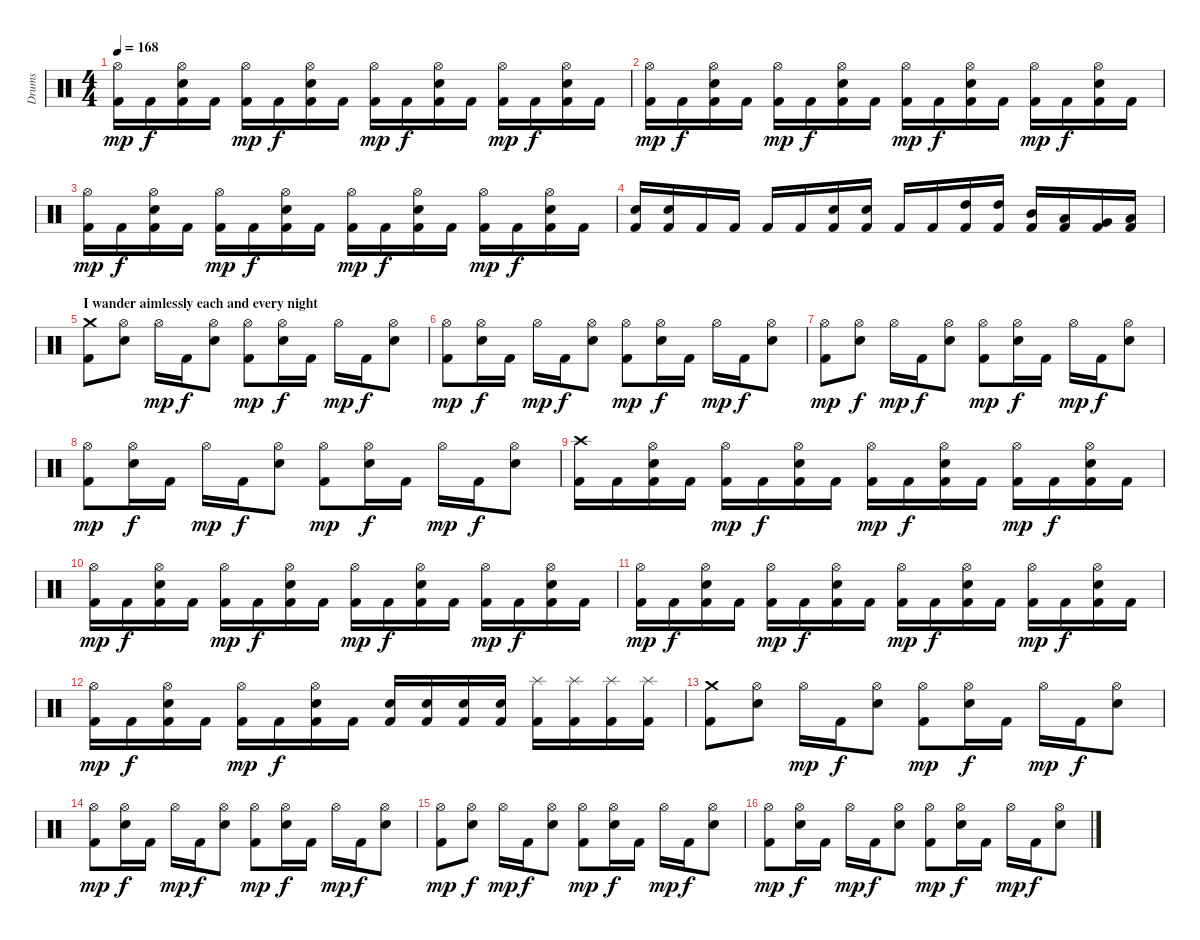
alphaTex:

\track ("Drums" "Drums") {instrument percussion}
\staff {score}
\articulation defaults
\ts (4 4)
\tempo 168
\clef neutral
\ks c
("Kick (hit) 2" "Hi-Hat (open)").16{dy mp} "Kick (hit) 2".16{dy f} ("Kick (hit) 2" "Electric Snare (hit)" "Hi-Hat (open)").16 "Kick (hit) 2".16 ("Kick (hit) 2" "Hi-Hat (open)").16{dy mp} "Kick (hit) 2".16{dy f} ("Kick (hit) 2" "Electric Snare (hit)" "Hi-Hat (open)").16 "Kick (hit) 2".16 ("Kick (hit) 2" "Hi-Hat (open)").16{dy mp} "Kick (hit) 2".16{dy f} ("Kick (hit) 2" "Electric Snare (hit)" "Hi-Hat (open)").16 "Kick (hit) 2".16 ("Kick (hit) 2" "Hi-Hat (open)").16{dy mp} "Kick (hit) 2".16{dy f} ("Kick (hit) 2" "Electric Snare (hit)" "Hi-Hat (open)").16 "Kick (hit) 2".16 |
("Kick (hit) 2" "Hi-Hat (open)").16{dy mp} "Kick (hit) 2".16{dy f} ("Kick (hit) 2" "Electric Snare (hit)" "Hi-Hat (open)").16 "Kick (hit) 2".16 ("Kick (hit) 2" "Hi-Hat (open)").16{dy mp} "Kick (hit) 2".16{dy f} ("Kick (hit) 2" "Electric Snare (hit)" "Hi-Hat (open)").16 "Kick (hit) 2".16 ("Kick (hit) 2" "Hi-Hat (open)").16{dy mp} "Kick (hit) 2".16{dy f} ("Kick (hit) 2" "Electric Snare (hit)" "Hi-Hat (open)").16 "Kick (hit) 2".16 ("Kick (hit) 2" "Hi-Hat (open)").16{dy mp} "Kick (hit) 2".16{dy f} ("Kick (hit) 2" "Electric Snare (hit)" "Hi-Hat (open)").16 "Kick (hit) 2".16 |
("Kick (hit) 2" "Hi-Hat (open)").16{dy mp} "Kick (hit) 2".16{dy f} ("Kick (hit) 2" "Electric Snare (hit)" "Hi-Hat (open)").16 "Kick (hit) 2".16 ("Kick (hit) 2" "Hi-Hat (open)").16{dy mp} "Kick (hit) 2".16{dy f} ("Kick (hit) 2" "Electric Snare (hit)" "Hi-Hat (open)").16 "Kick (hit) 2".16 ("Kick (hit) 2" "Hi-Hat (open)").16{dy mp} "Kick (hit) 2".16{dy f} ("Kick (hit) 2" "Electric Snare (hit)" "Hi-Hat (open)").16 "Kick (hit) 2".16 ("Kick (hit) 2" "Hi-Hat (open)").16{dy mp} "Kick (hit) 2".16{dy f} ("Kick (hit) 2" "Electric Snare (hit)" "Hi-Hat (open)").16 "Kick (hit) 2".16 |
("Kick (hit) 2" "Electric Snare (hit)").16 ("Kick (hit) 2" "Electric Snare (hit)").16 "Kick (hit) 2".16 "Kick (hit) 2".16 "Kick (hit) 2".16 "Kick (hit) 2".16 ("Kick (hit) 2" "Electric Snare (hit)").16 ("Kick (hit) 2" "Electric Snare (hit)").16 "Kick (hit) 2".16 "Kick (hit) 2".16 ("Kick (hit) 2" "High Tom (hit)").16 ("Kick (hit) 2" "High Tom (hit)").16 ("Kick (hit) 2" "Mid Tom (hit)").16 ("Kick (hit) 2" "Low Tom (hit)").16 ("Kick (hit) 2" "Very Low Tom (hit)").16 ("Kick (hit) 2" "Low Floor Tom (hit)").16 |
\section ("" "I wander aimlessly each and every night")
("Kick (hit) 2" "Crash medium (hit)").8 ("Electric Snare (hit)" "Hi-Hat (open)").8 "Hi-Hat (open)".16{dy mp} "Kick (hit) 2".16{dy f} ("Electric Snare (hit)" "Hi-Hat (open)").8 ("Kick (hit) 2" "Hi-Hat (open)").8{dy mp} ("Electric Snare (hit)" "Hi-Hat (open)").16{dy f} "Kick (hit) 2".16 "Hi-Hat (open)".16{dy mp} "Kick (hit) 2".16{dy f} ("Electric Snare (hit)" "Hi-Hat (open)").8 |
("Kick (hit) 2" "Hi-Hat (open)").8{dy mp} ("Electric Snare (hit)" "Hi-Hat (open)").16{dy f} "Kick (hit) 2".16 "Hi-Hat (open)".16{dy mp} "Kick (hit) 2".16{dy f} ("Electric Snare (hit)" "Hi-Hat (open)").8 ("Kick (hit) 2" "Hi-Hat (open)").8{dy mp} ("Electric Snare (hit)" "Hi-Hat (open)").16{dy f} "Kick (hit) 2".16 "Hi-Hat (open)".16{dy mp} "Kick (hit) 2".16{dy f} ("Electric Snare (hit)" "Hi-Hat (open)").8 |
("Kick (hit) 2" "Hi-Hat (open)").8{dy mp} ("Electric Snare (hit)" "Hi-Hat (open)").8{dy f} "Hi-Hat (open)".16{dy mp} "Kick (hit) 2".16{dy f} ("Electric Snare (hit)" "Hi-Hat (open)").8 ("Kick (hit) 2" "Hi-Hat (open)").8{dy mp} ("Electric Snare (hit)" "Hi-Hat (open)").16{dy f} "Kick (hit) 2".16 "Hi-Hat (open)".16{dy mp} "Kick (hit) 2".16{dy f} ("Electric Snare (hit)" "Hi-Hat (open)").8 |
("Kick (hit) 2" "Hi-Hat (open)").8{dy mp} ("Electric Snare (hit)" "Hi-Hat (open)").16{dy f} "Kick (hit) 2".16 "Hi-Hat (open)".16{dy mp} "Kick (hit) 2".16{dy f} ("Electric Snare (hit)" "Hi-Hat (open)").8 ("Kick (hit) 2" "Hi-Hat (open)").8{dy mp} ("Electric Snare (hit)" "Hi-Hat (open)").16{dy f} "Kick (hit) 2".16 "Hi-Hat (open)".16{dy mp} "Kick (hit) 2".16{dy f} ("Electric Snare (hit)" "Hi-Hat (open)").8 |
("Kick (hit) 2" "Crash high (hit)").16 "Kick (hit) 2".16 ("Kick (hit) 2" "Electric Snare (hit)" "Hi-Hat (open)").16 "Kick (hit) 2".16 ("Kick (hit) 2" "Hi-Hat (open)").16{dy mp} "Kick (hit) 2".16{dy f} ("Kick (hit) 2" "Electric Snare (hit)" "Hi-Hat (open)").16 "Kick (hit) 2".16 ("Kick (hit) 2" "Hi-Hat (open)").16{dy mp} "Kick (hit) 2".16{dy f} ("Kick (hit) 2" "Electric Snare (hit)" "Hi-Hat (open)").16 "Kick (hit) 2".16 ("Kick (hit) 2" "Hi-Hat (open)").16{dy mp} "Kick (hit) 2".16{dy f} ("Kick (hit) 2" "Electric Snare (hit)" "Hi-Hat (open)").16 "Kick (hit) 2".16 |
("Kick (hit) 2" "Hi-Hat (open)").16{dy mp} "Kick (hit) 2".16{dy f} ("Kick (hit) 2" "Electric Snare (hit)" "Hi-Hat (open)").16 "Kick (hit) 2".16 ("Kick (hit) 2" "Hi-Hat (open)").16{dy mp} "Kick (hit) 2".16{dy f} ("Kick (hit) 2" "Electric Snare (hit)" "Hi-Hat (open)").16 "Kick (hit) 2".16 ("Kick (hit) 2" "Hi-Hat (open)").16{dy mp} "Kick (hit) 2".16{dy f} ("Kick (hit) 2" "Electric Snare (hit)" "Hi-Hat (open)").16 "Kick (hit) 2".16 ("Kick (hit) 2" "Hi-Hat (open)").16{dy mp} "Kick (hit) 2".16{dy f} ("Kick (hit) 2" "Electric Snare (hit)" "Hi-Hat (open)").16 "Kick (hit) 2".16 |
("Kick (hit) 2" "Hi-Hat (open)").16{dy mp} "Kick (hit) 2".16{dy f} ("Kick (hit) 2" "Electric Snare (hit)" "Hi-Hat (open)").16 "Kick (hit) 2".16 ("Kick (hit) 2" "Hi-Hat (open)").16{dy mp} "Kick (hit) 2".16{dy f} ("Kick (hit) 2" "Electric Snare (hit)" "Hi-Hat (open)").16 "Kick (hit) 2".16 ("Kick (hit) 2" "Hi-Hat (open)").16{dy mp} "Kick (hit) 2".16{dy f} ("Kick (hit) 2" "Electric Snare (hit)" "Hi-Hat (open)").16 "Kick (hit) 2".16 ("Kick (hit) 2" "Hi-Hat (open)").16{dy mp} "Kick (hit) 2".16{dy f} ("Kick (hit) 2" "Electric Snare (hit)" "Hi-Hat (open)").16 "Kick (hit) 2".16 |
("Kick (hit) 2" "Hi-Hat (open)").16{dy mp} "Kick (hit) 2".16{dy f} ("Kick (hit) 2" "Electric Snare (hit)" "Hi-Hat (open)").16 "Kick (hit) 2".16 ("Kick (hit) 2" "Hi-Hat (open)").16{dy mp} "Kick (hit) 2".16{dy f} ("Kick (hit) 2" "Electric Snare (hit)" "Hi-Hat (open)").16 "Kick (hit) 2".16 ("Kick (hit) 2" "Electric Snare (hit)").16 ("Kick (hit) 2" "Electric Snare (hit)").16 ("Kick (hit) 2" "Electric Snare (hit)").16 ("Kick (hit) 2" "Electric Snare (hit)").16 ("Kick (hit) 2" "Splash (hit)").16 ("Kick (hit) 2" "Splash (hit)").16 ("Kick (hit) 2" "Splash (hit)").16 ("Kick (hit) 2" "Splash (hit)").16 |
("Kick (hit) 2" "Crash medium (hit)").8 ("Electric Snare (hit)" "Hi-Hat (open)").8 "Hi-Hat (open)".16{dy mp} "Kick (hit) 2".16{dy f} ("Electric Snare (hit)" "Hi-Hat (open)").8 ("Kick (hit) 2" "Hi-Hat (open)").8{dy mp} ("Electric Snare (hit)" "Hi-Hat (open)").16{dy f} "Kick (hit) 2".16 "Hi-Hat (open)".16{dy mp} "Kick (hit) 2".16{dy f} ("Electric Snare (hit)" "Hi-Hat (open)").8 |
("Kick (hit) 2" "Hi-Hat (open)").8{dy mp} ("Electric Snare (hit)" "Hi-Hat (open)").16{dy f} "Kick (hit) 2".16 "Hi-Hat (open)".16{dy mp} "Kick (hit) 2".16{dy f} ("Electric Snare (hit)" "Hi-Hat (open)").8 ("Kick (hit) 2" "Hi-Hat (open)").8{dy mp} ("Electric Snare (hit)" "Hi-Hat (open)").16{dy f} "Kick (hit) 2".16 "Hi-Hat (open)".16{dy mp} "Kick (hit) 2".16{dy f} ("Electric Snare (hit)" "Hi-Hat (open)").8 |
("Kick (hit) 2" "Hi-Hat (open)").8{dy mp} ("Electric Snare (hit)" "Hi-Hat (open)").8{dy f} "Hi-Hat (open)".16{dy mp} "Kick (hit) 2".16{dy f} ("Electric Snare (hit)" "Hi-Hat (open)").8 ("Kick (hit) 2" "Hi-Hat (open)").8{dy mp} ("Electric Snare (hit)" "Hi-Hat (open)").16{dy f} "Kick (hit) 2".16 "Hi-Hat (open)".16{dy mp} "Kick (hit) 2".16{dy f} ("Electric Snare (hit)" "Hi-Hat (open)").8 |
("Kick (hit) 2" "Hi-Hat (open)").8{dy mp} ("Electric Snare (hit)" "Hi-Hat (open)").16{dy f} "Kick (hit) 2".16 "Hi-Hat (open)".16{dy mp} "Kick (hit) 2".16{dy f} ("Electric Snare (hit)" "Hi-Hat (open)").8 ("Kick (hit) 2" "Hi-Hat (open)").8{dy mp} ("Electric Snare (hit)" "Hi-Hat (open)").16{dy f} "Kick (hit) 2".16 "Hi-Hat (open)".16{dy mp} "Kick (hit) 2".16{dy f} ("Electric Snare (hit)" "Hi-Hat (open)").8
